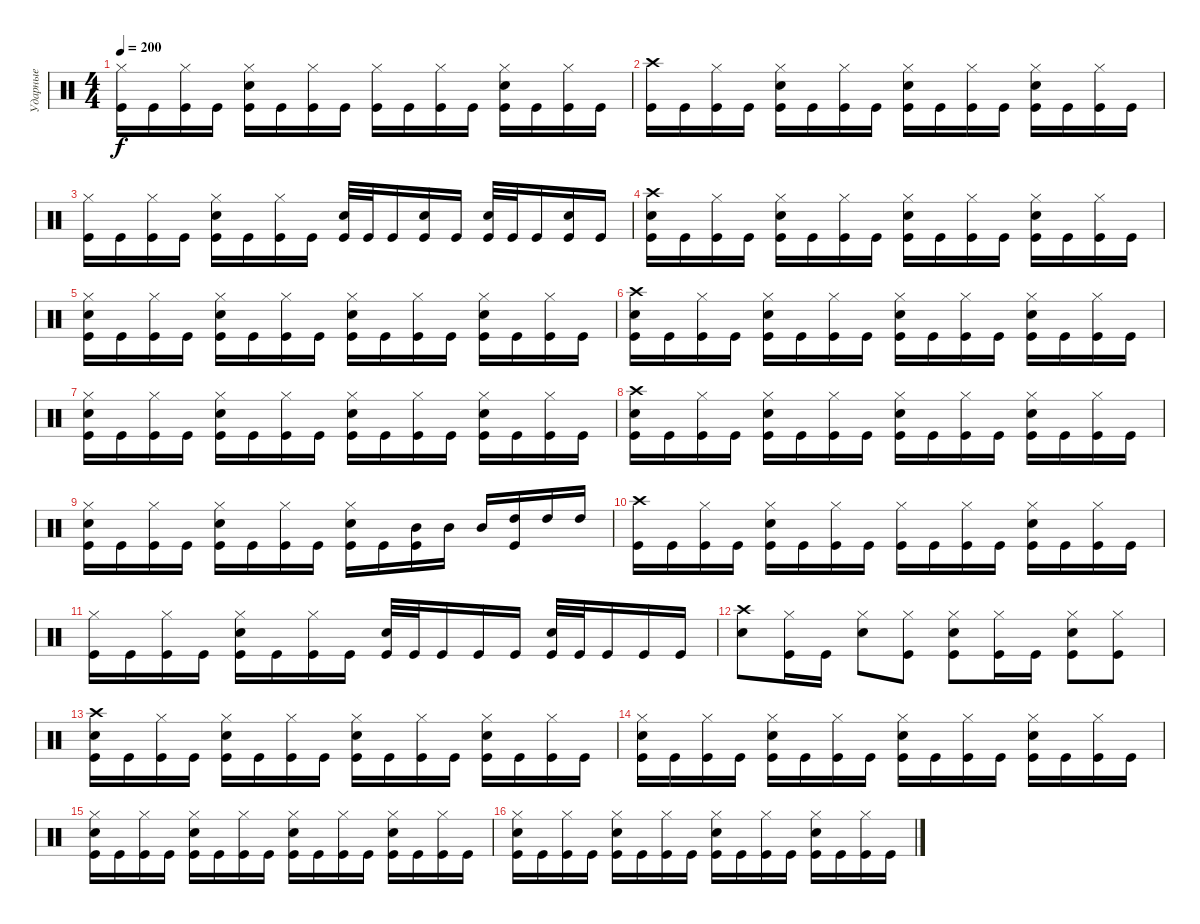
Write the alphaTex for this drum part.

\track ("Ударные" "Ударные") {instrument percussion}
\staff {score}
\articulation defaults
\ts (4 4)
\tempo 200
\clef neutral
\ks c
("Hi-Hat (closed)" "Kick (hit)").16{dy f} "Kick (hit)".16 ("Hi-Hat (closed)" "Kick (hit)").16 "Kick (hit)".16 ("Hi-Hat (closed)" "Electric Snare (hit)" "Kick (hit)").16 "Kick (hit)".16 ("Hi-Hat (closed)" "Kick (hit)").16 "Kick (hit)".16 ("Hi-Hat (closed)" "Kick (hit)").16 "Kick (hit)".16 ("Hi-Hat (closed)" "Kick (hit)").16 "Kick (hit)".16 ("Hi-Hat (closed)" "Electric Snare (hit)" "Kick (hit)").16 "Kick (hit)".16 ("Hi-Hat (closed)" "Kick (hit)").16 "Kick (hit)".16 |
("Crash high (hit)" "Kick (hit)").16 "Kick (hit)".16 ("Hi-Hat (closed)" "Kick (hit)").16 "Kick (hit)".16 ("Hi-Hat (closed)" "Electric Snare (hit)" "Kick (hit)").16 "Kick (hit)".16 ("Hi-Hat (closed)" "Kick (hit)").16 "Kick (hit)".16 ("Hi-Hat (closed)" "Electric Snare (hit)" "Kick (hit)").16 "Kick (hit)".16 ("Hi-Hat (closed)" "Kick (hit)").16 "Kick (hit)".16 ("Hi-Hat (closed)" "Electric Snare (hit)" "Kick (hit)").16 "Kick (hit)".16 ("Hi-Hat (closed)" "Kick (hit)").16 "Kick (hit)".16 |
("Hi-Hat (closed)" "Kick (hit)").16 "Kick (hit)".16 ("Hi-Hat (closed)" "Kick (hit)").16 "Kick (hit)".16 ("Hi-Hat (closed)" "Electric Snare (hit)" "Kick (hit)").16 "Kick (hit)".16 ("Hi-Hat (closed)" "Kick (hit)").16 "Kick (hit)".16 ("Electric Snare (hit)" "Kick (hit)").32 "Kick (hit)".32 "Kick (hit)".16 ("Electric Snare (hit)" "Kick (hit)").16 "Kick (hit)".16 ("Electric Snare (hit)" "Kick (hit)").32 "Kick (hit)".32 "Kick (hit)".16 ("Electric Snare (hit)" "Kick (hit)").16 "Kick (hit)".16 |
("Crash high (hit)" "Electric Snare (hit)" "Kick (hit)").16 "Kick (hit)".16 ("Hi-Hat (closed)" "Kick (hit)").16 "Kick (hit)".16 ("Hi-Hat (closed)" "Electric Snare (hit)" "Kick (hit)").16 "Kick (hit)".16 ("Hi-Hat (closed)" "Kick (hit)").16 "Kick (hit)".16 ("Hi-Hat (closed)" "Electric Snare (hit)" "Kick (hit)").16 "Kick (hit)".16 ("Hi-Hat (closed)" "Kick (hit)").16 "Kick (hit)".16 ("Hi-Hat (closed)" "Electric Snare (hit)" "Kick (hit)").16 "Kick (hit)".16 ("Hi-Hat (closed)" "Kick (hit)").16 "Kick (hit)".16 |
("Hi-Hat (closed)" "Electric Snare (hit)" "Kick (hit)").16 "Kick (hit)".16 ("Hi-Hat (closed)" "Kick (hit)").16 "Kick (hit)".16 ("Hi-Hat (closed)" "Electric Snare (hit)" "Kick (hit)").16 "Kick (hit)".16 ("Hi-Hat (closed)" "Kick (hit)").16 "Kick (hit)".16 ("Hi-Hat (closed)" "Electric Snare (hit)" "Kick (hit)").16 "Kick (hit)".16 ("Hi-Hat (closed)" "Kick (hit)").16 "Kick (hit)".16 ("Hi-Hat (closed)" "Electric Snare (hit)" "Kick (hit)").16 "Kick (hit)".16 ("Hi-Hat (closed)" "Kick (hit)").16 "Kick (hit)".16 |
("Crash high (hit)" "Electric Snare (hit)" "Kick (hit)").16 "Kick (hit)".16 ("Hi-Hat (closed)" "Kick (hit)").16 "Kick (hit)".16 ("Hi-Hat (closed)" "Electric Snare (hit)" "Kick (hit)").16 "Kick (hit)".16 ("Hi-Hat (closed)" "Kick (hit)").16 "Kick (hit)".16 ("Hi-Hat (closed)" "Electric Snare (hit)" "Kick (hit)").16 "Kick (hit)".16 ("Hi-Hat (closed)" "Kick (hit)").16 "Kick (hit)".16 ("Hi-Hat (closed)" "Electric Snare (hit)" "Kick (hit)").16 "Kick (hit)".16 ("Hi-Hat (closed)" "Kick (hit)").16 "Kick (hit)".16 |
("Hi-Hat (closed)" "Electric Snare (hit)" "Kick (hit)").16 "Kick (hit)".16 ("Hi-Hat (closed)" "Kick (hit)").16 "Kick (hit)".16 ("Hi-Hat (closed)" "Electric Snare (hit)" "Kick (hit)").16 "Kick (hit)".16 ("Hi-Hat (closed)" "Kick (hit)").16 "Kick (hit)".16 ("Hi-Hat (closed)" "Electric Snare (hit)" "Kick (hit)").16 "Kick (hit)".16 ("Hi-Hat (closed)" "Kick (hit)").16 "Kick (hit)".16 ("Hi-Hat (closed)" "Electric Snare (hit)" "Kick (hit)").16 "Kick (hit)".16 ("Hi-Hat (closed)" "Kick (hit)").16 "Kick (hit)".16 |
("Crash high (hit)" "Electric Snare (hit)" "Kick (hit)").16 "Kick (hit)".16 ("Hi-Hat (closed)" "Kick (hit)").16 "Kick (hit)".16 ("Hi-Hat (closed)" "Electric Snare (hit)" "Kick (hit)").16 "Kick (hit)".16 ("Hi-Hat (closed)" "Kick (hit)").16 "Kick (hit)".16 ("Hi-Hat (closed)" "Electric Snare (hit)" "Kick (hit)").16 "Kick (hit)".16 ("Hi-Hat (closed)" "Kick (hit)").16 "Kick (hit)".16 ("Hi-Hat (closed)" "Electric Snare (hit)" "Kick (hit)").16 "Kick (hit)".16 ("Hi-Hat (closed)" "Kick (hit)").16 "Kick (hit)".16 |
("Hi-Hat (closed)" "Electric Snare (hit)" "Kick (hit)").16 "Kick (hit)".16 ("Hi-Hat (closed)" "Kick (hit)").16 "Kick (hit)".16 ("Hi-Hat (closed)" "Electric Snare (hit)" "Kick (hit)").16 "Kick (hit)".16 ("Hi-Hat (closed)" "Kick (hit)").16 "Kick (hit)".16 ("Hi-Hat (closed)" "Electric Snare (hit)" "Kick (hit)").16 "Kick (hit)".16 ("Mid Tom (hit)" "Kick (hit)").16 "Mid Tom (hit)".16 "Mid Tom (hit)".16 ("High Tom (hit)" "Kick (hit)").16 "High Tom (hit)".16 "High Tom (hit)".16 |
("Crash high (hit)" "Kick (hit)").16 "Kick (hit)".16 ("Hi-Hat (closed)" "Kick (hit)").16 "Kick (hit)".16 ("Hi-Hat (closed)" "Electric Snare (hit)" "Kick (hit)").16 "Kick (hit)".16 ("Hi-Hat (closed)" "Kick (hit)").16 "Kick (hit)".16 ("Hi-Hat (closed)" "Kick (hit)").16 "Kick (hit)".16 ("Hi-Hat (closed)" "Kick (hit)").16 "Kick (hit)".16 ("Hi-Hat (closed)" "Electric Snare (hit)" "Kick (hit)").16 "Kick (hit)".16 ("Hi-Hat (closed)" "Kick (hit)").16 "Kick (hit)".16 |
("Hi-Hat (closed)" "Kick (hit)").16 "Kick (hit)".16 ("Hi-Hat (closed)" "Kick (hit)").16 "Kick (hit)".16 ("Hi-Hat (closed)" "Electric Snare (hit)" "Kick (hit)").16 "Kick (hit)".16 ("Hi-Hat (closed)" "Kick (hit)").16 "Kick (hit)".16 ("Electric Snare (hit)" "Kick (hit)").32 "Kick (hit)".32 "Kick (hit)".16 "Kick (hit)".16 "Kick (hit)".16 ("Electric Snare (hit)" "Kick (hit)").32 "Kick (hit)".32 "Kick (hit)".16 "Kick (hit)".16 "Kick (hit)".16 |
("Crash high (hit)" "Electric Snare (hit)").8 ("Hi-Hat (closed)" "Kick (hit)").16 "Kick (hit)".16 ("Hi-Hat (closed)" "Electric Snare (hit)").8 ("Hi-Hat (closed)" "Kick (hit)").8 ("Hi-Hat (closed)" "Electric Snare (hit)" "Kick (hit)").8 ("Hi-Hat (closed)" "Kick (hit)").16 "Kick (hit)".16 ("Hi-Hat (closed)" "Electric Snare (hit)" "Kick (hit)").8 ("Hi-Hat (closed)" "Kick (hit)").8 |
("Crash high (hit)" "Electric Snare (hit)" "Kick (hit)").16 "Kick (hit)".16 ("Hi-Hat (closed)" "Kick (hit)").16 "Kick (hit)".16 ("Hi-Hat (closed)" "Electric Snare (hit)" "Kick (hit)").16 "Kick (hit)".16 ("Hi-Hat (closed)" "Kick (hit)").16 "Kick (hit)".16 ("Hi-Hat (closed)" "Electric Snare (hit)" "Kick (hit)").16 "Kick (hit)".16 ("Hi-Hat (closed)" "Kick (hit)").16 "Kick (hit)".16 ("Hi-Hat (closed)" "Electric Snare (hit)" "Kick (hit)").16 "Kick (hit)".16 ("Hi-Hat (closed)" "Kick (hit)").16 "Kick (hit)".16 |
("Hi-Hat (closed)" "Electric Snare (hit)" "Kick (hit)").16 "Kick (hit)".16 ("Hi-Hat (closed)" "Kick (hit)").16 "Kick (hit)".16 ("Hi-Hat (closed)" "Electric Snare (hit)" "Kick (hit)").16 "Kick (hit)".16 ("Hi-Hat (closed)" "Kick (hit)").16 "Kick (hit)".16 ("Hi-Hat (closed)" "Electric Snare (hit)" "Kick (hit)").16 "Kick (hit)".16 ("Hi-Hat (closed)" "Kick (hit)").16 "Kick (hit)".16 ("Hi-Hat (closed)" "Electric Snare (hit)" "Kick (hit)").16 "Kick (hit)".16 ("Hi-Hat (closed)" "Kick (hit)").16 "Kick (hit)".16 |
("Hi-Hat (closed)" "Electric Snare (hit)" "Kick (hit)").16 "Kick (hit)".16 ("Hi-Hat (closed)" "Kick (hit)").16 "Kick (hit)".16 ("Hi-Hat (closed)" "Electric Snare (hit)" "Kick (hit)").16 "Kick (hit)".16 ("Hi-Hat (closed)" "Kick (hit)").16 "Kick (hit)".16 ("Hi-Hat (closed)" "Electric Snare (hit)" "Kick (hit)").16 "Kick (hit)".16 ("Hi-Hat (closed)" "Kick (hit)").16 "Kick (hit)".16 ("Hi-Hat (closed)" "Electric Snare (hit)" "Kick (hit)").16 "Kick (hit)".16 ("Hi-Hat (closed)" "Kick (hit)").16 "Kick (hit)".16 |
("Hi-Hat (closed)" "Electric Snare (hit)" "Kick (hit)").16 "Kick (hit)".16 ("Hi-Hat (closed)" "Kick (hit)").16 "Kick (hit)".16 ("Hi-Hat (closed)" "Electric Snare (hit)" "Kick (hit)").16 "Kick (hit)".16 ("Hi-Hat (closed)" "Kick (hit)").16 "Kick (hit)".16 ("Hi-Hat (closed)" "Electric Snare (hit)" "Kick (hit)").16 "Kick (hit)".16 ("Hi-Hat (closed)" "Kick (hit)").16 "Kick (hit)".16 ("Hi-Hat (closed)" "Electric Snare (hit)" "Kick (hit)").16 "Kick (hit)".16 ("Hi-Hat (closed)" "Kick (hit)").16 "Kick (hit)".16
